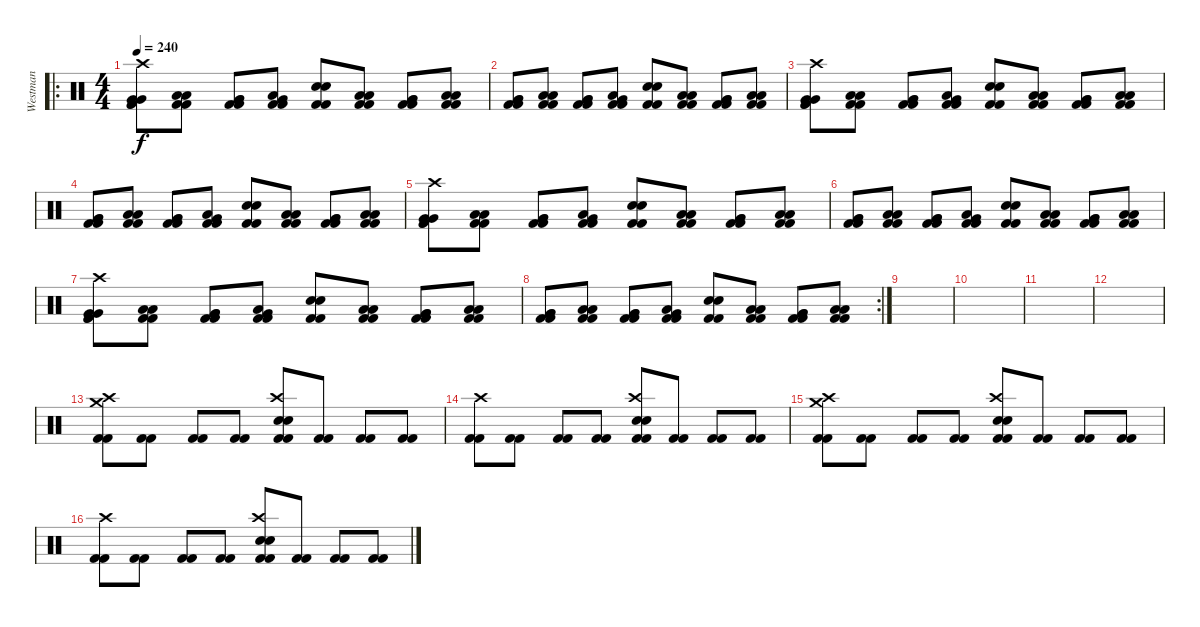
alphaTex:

\track ("Westman" "Westman") {instrument percussion}
\staff {score}
\articulation defaults
\ro
\ts (4 4)
\tempo 240
\clef neutral
\ks c
("Kick (hit) 2" "Kick (hit) 2" "Very Low Tom (hit)" "Very Low Tom (hit)" "Crash high (hit)").8{dy f} ("Kick (hit) 2" "Kick (hit) 2" "Low Tom (hit)" "Low Tom (hit)").8 ("Kick (hit) 2" "Kick (hit) 2" "Very Low Tom (hit)" "Very Low Tom (hit)").8 ("Kick (hit) 2" "Kick (hit) 2" "Low Tom (hit)" "Very Low Tom (hit)").8 ("Kick (hit) 2" "Kick (hit) 2" "Snare (hit) 2" "Electric Snare (hit)").8 ("Kick (hit) 2" "Kick (hit) 2" "Low Tom (hit)" "Low Tom (hit)").8 ("Kick (hit) 2" "Kick (hit) 2" "Very Low Tom (hit)" "Very Low Tom (hit)").8 ("Kick (hit) 2" "Kick (hit) 2" "Low Tom (hit)" "Low Tom (hit)").8 |
("Kick (hit) 2" "Kick (hit) 2" "Very Low Tom (hit)" "Very Low Tom (hit)").8 ("Kick (hit) 2" "Kick (hit) 2" "Low Tom (hit)" "Low Tom (hit)").8 ("Kick (hit) 2" "Kick (hit) 2" "Very Low Tom (hit)" "Very Low Tom (hit)").8 ("Kick (hit) 2" "Kick (hit) 2" "Low Tom (hit)" "Very Low Tom (hit)").8 ("Kick (hit) 2" "Kick (hit) 2" "Snare (hit) 2" "Electric Snare (hit)").8 ("Kick (hit) 2" "Kick (hit) 2" "Low Tom (hit)" "Low Tom (hit)").8 ("Kick (hit) 2" "Kick (hit) 2" "Very Low Tom (hit)" "Very Low Tom (hit)").8 ("Kick (hit) 2" "Kick (hit) 2" "Low Tom (hit)" "Low Tom (hit)").8 |
("Kick (hit) 2" "Kick (hit) 2" "Very Low Tom (hit)" "Very Low Tom (hit)" "Crash high (hit)").8 ("Kick (hit) 2" "Kick (hit) 2" "Low Tom (hit)" "Low Tom (hit)").8 ("Kick (hit) 2" "Kick (hit) 2" "Very Low Tom (hit)" "Very Low Tom (hit)").8 ("Kick (hit) 2" "Kick (hit) 2" "Low Tom (hit)" "Very Low Tom (hit)").8 ("Kick (hit) 2" "Kick (hit) 2" "Snare (hit) 2" "Electric Snare (hit)").8 ("Kick (hit) 2" "Kick (hit) 2" "Low Tom (hit)" "Low Tom (hit)").8 ("Kick (hit) 2" "Kick (hit) 2" "Very Low Tom (hit)" "Very Low Tom (hit)").8 ("Kick (hit) 2" "Kick (hit) 2" "Low Tom (hit)" "Low Tom (hit)").8 |
("Kick (hit) 2" "Kick (hit) 2" "Very Low Tom (hit)" "Very Low Tom (hit)").8 ("Kick (hit) 2" "Kick (hit) 2" "Low Tom (hit)" "Low Tom (hit)").8 ("Kick (hit) 2" "Kick (hit) 2" "Very Low Tom (hit)" "Very Low Tom (hit)").8 ("Kick (hit) 2" "Kick (hit) 2" "Low Tom (hit)" "Very Low Tom (hit)").8 ("Kick (hit) 2" "Kick (hit) 2" "Snare (hit) 2" "Electric Snare (hit)").8 ("Kick (hit) 2" "Kick (hit) 2" "Low Tom (hit)" "Low Tom (hit)").8 ("Kick (hit) 2" "Kick (hit) 2" "Very Low Tom (hit)" "Very Low Tom (hit)").8 ("Kick (hit) 2" "Kick (hit) 2" "Low Tom (hit)" "Low Tom (hit)").8 |
("Kick (hit) 2" "Kick (hit) 2" "Very Low Tom (hit)" "Very Low Tom (hit)" "Crash high (hit)").8 ("Kick (hit) 2" "Kick (hit) 2" "Low Tom (hit)" "Low Tom (hit)").8 ("Kick (hit) 2" "Kick (hit) 2" "Very Low Tom (hit)" "Very Low Tom (hit)").8 ("Kick (hit) 2" "Kick (hit) 2" "Low Tom (hit)" "Very Low Tom (hit)").8 ("Kick (hit) 2" "Kick (hit) 2" "Snare (hit) 2" "Electric Snare (hit)").8 ("Kick (hit) 2" "Kick (hit) 2" "Low Tom (hit)" "Low Tom (hit)").8 ("Kick (hit) 2" "Kick (hit) 2" "Very Low Tom (hit)" "Very Low Tom (hit)").8 ("Kick (hit) 2" "Kick (hit) 2" "Low Tom (hit)" "Low Tom (hit)").8 |
("Kick (hit) 2" "Kick (hit) 2" "Very Low Tom (hit)" "Very Low Tom (hit)").8 ("Kick (hit) 2" "Kick (hit) 2" "Low Tom (hit)" "Low Tom (hit)").8 ("Kick (hit) 2" "Kick (hit) 2" "Very Low Tom (hit)" "Very Low Tom (hit)").8 ("Kick (hit) 2" "Kick (hit) 2" "Low Tom (hit)" "Very Low Tom (hit)").8 ("Kick (hit) 2" "Kick (hit) 2" "Snare (hit) 2" "Electric Snare (hit)").8 ("Kick (hit) 2" "Kick (hit) 2" "Low Tom (hit)" "Low Tom (hit)").8 ("Kick (hit) 2" "Kick (hit) 2" "Very Low Tom (hit)" "Very Low Tom (hit)").8 ("Kick (hit) 2" "Kick (hit) 2" "Low Tom (hit)" "Low Tom (hit)").8 |
("Kick (hit) 2" "Kick (hit) 2" "Very Low Tom (hit)" "Very Low Tom (hit)" "Crash high (hit)").8 ("Kick (hit) 2" "Kick (hit) 2" "Low Tom (hit)" "Low Tom (hit)").8 ("Kick (hit) 2" "Kick (hit) 2" "Very Low Tom (hit)" "Very Low Tom (hit)").8 ("Kick (hit) 2" "Kick (hit) 2" "Low Tom (hit)" "Very Low Tom (hit)").8 ("Kick (hit) 2" "Kick (hit) 2" "Snare (hit) 2" "Electric Snare (hit)").8 ("Kick (hit) 2" "Kick (hit) 2" "Low Tom (hit)" "Low Tom (hit)").8 ("Kick (hit) 2" "Kick (hit) 2" "Very Low Tom (hit)" "Very Low Tom (hit)").8 ("Kick (hit) 2" "Kick (hit) 2" "Low Tom (hit)" "Low Tom (hit)").8 |
\rc 2
("Kick (hit) 2" "Kick (hit) 2" "Very Low Tom (hit)" "Very Low Tom (hit)").8 ("Kick (hit) 2" "Kick (hit) 2" "Low Tom (hit)" "Low Tom (hit)").8 ("Kick (hit) 2" "Kick (hit) 2" "Very Low Tom (hit)" "Very Low Tom (hit)").8 ("Kick (hit) 2" "Kick (hit) 2" "Low Tom (hit)" "Very Low Tom (hit)").8 ("Kick (hit) 2" "Kick (hit) 2" "Snare (hit) 2" "Electric Snare (hit)").8 ("Kick (hit) 2" "Kick (hit) 2" "Low Tom (hit)" "Low Tom (hit)").8 ("Kick (hit) 2" "Kick (hit) 2" "Very Low Tom (hit)" "Very Low Tom (hit)").8 ("Kick (hit) 2" "Kick (hit) 2" "Low Tom (hit)" "Low Tom (hit)").8 |
|
|
|
|
("Kick (hit) 2" "Kick (hit) 2" "Crash high (hit)" "Crash medium (hit)").8 ("Kick (hit) 2" "Kick (hit) 2").8 ("Kick (hit) 2" "Kick (hit) 2").8 ("Kick (hit) 2" "Kick (hit) 2").8 ("Kick (hit) 2" "Kick (hit) 2" "Electric Snare (hit)" "Crash high (hit)" "Snare (hit) 2").8 ("Kick (hit) 2" "Kick (hit) 2").8 ("Kick (hit) 2" "Kick (hit) 2").8 ("Kick (hit) 2" "Kick (hit) 2").8 |
("Kick (hit) 2" "Kick (hit) 2" "Crash high (hit)").8 ("Kick (hit) 2" "Kick (hit) 2").8 ("Kick (hit) 2" "Kick (hit) 2").8 ("Kick (hit) 2" "Kick (hit) 2").8 ("Kick (hit) 2" "Kick (hit) 2" "Crash high (hit)" "Electric Snare (hit)" "Snare (hit) 2").8 ("Kick (hit) 2" "Kick (hit) 2").8 ("Kick (hit) 2" "Kick (hit) 2").8 ("Kick (hit) 2" "Kick (hit) 2").8 |
("Kick (hit) 2" "Kick (hit) 2" "Crash high (hit)" "Crash medium (hit)").8 ("Kick (hit) 2" "Kick (hit) 2").8 ("Kick (hit) 2" "Kick (hit) 2").8 ("Kick (hit) 2" "Kick (hit) 2").8 ("Kick (hit) 2" "Kick (hit) 2" "Electric Snare (hit)" "Crash high (hit)" "Snare (hit) 2").8 ("Kick (hit) 2" "Kick (hit) 2").8 ("Kick (hit) 2" "Kick (hit) 2").8 ("Kick (hit) 2" "Kick (hit) 2").8 |
("Kick (hit) 2" "Kick (hit) 2" "Crash high (hit)").8 ("Kick (hit) 2" "Kick (hit) 2").8 ("Kick (hit) 2" "Kick (hit) 2").8 ("Kick (hit) 2" "Kick (hit) 2").8 ("Kick (hit) 2" "Kick (hit) 2" "Crash high (hit)" "Electric Snare (hit)" "Snare (hit) 2").8 ("Kick (hit) 2" "Kick (hit) 2").8 ("Kick (hit) 2" "Kick (hit) 2").8 ("Kick (hit) 2" "Kick (hit) 2").8
